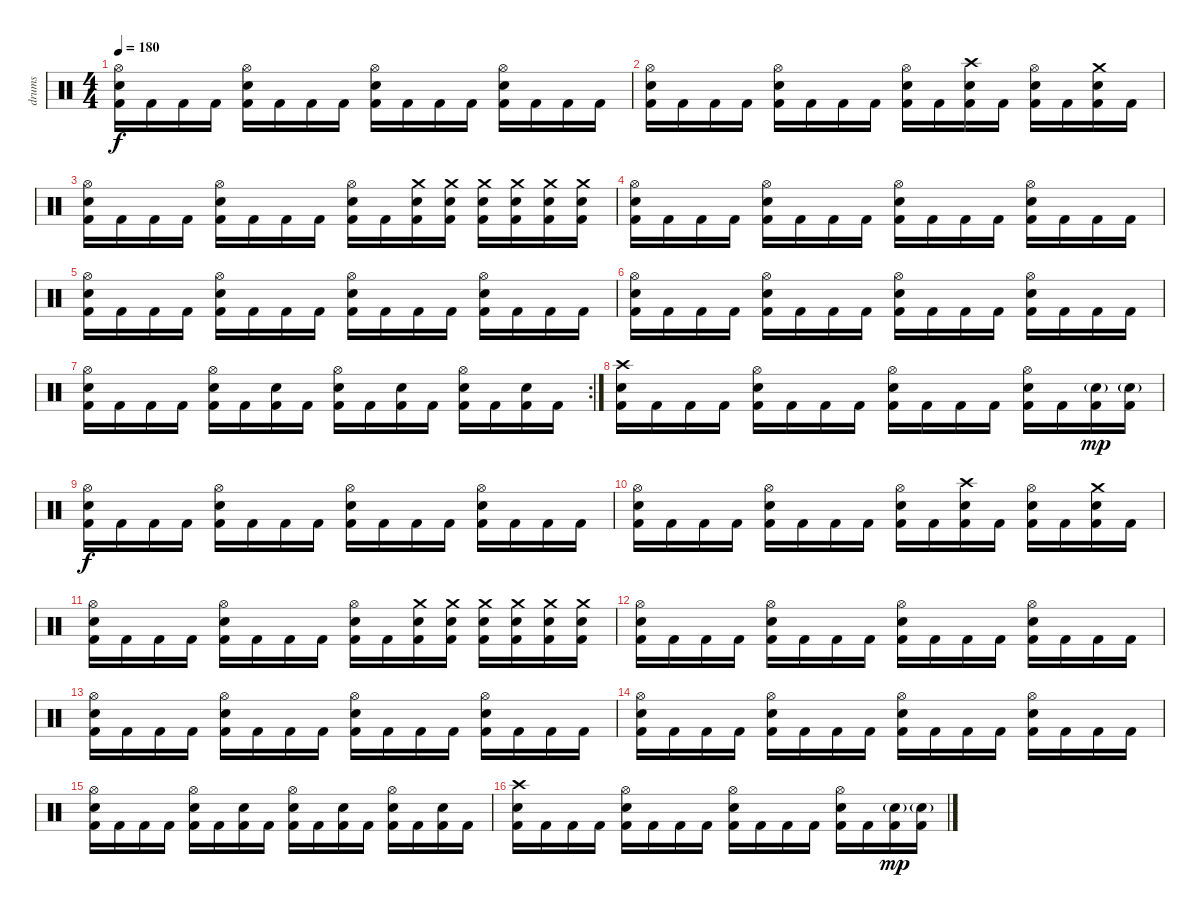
\track ("drums" "drums") {instrument percussion}
\staff {score}
\articulation defaults
\ts (4 4)
\tempo 180
\clef neutral
\ks c
("Hi-Hat (open)" "Electric Snare (hit)" "Kick (hit) 2").16{dy f} "Kick (hit) 2".16 "Kick (hit) 2".16 "Kick (hit) 2".16 ("Hi-Hat (open)" "Electric Snare (hit)" "Kick (hit) 2").16 "Kick (hit) 2".16 "Kick (hit) 2".16 "Kick (hit) 2".16 ("Hi-Hat (open)" "Electric Snare (hit)" "Kick (hit) 2").16 "Kick (hit) 2".16 "Kick (hit) 2".16 "Kick (hit) 2".16 ("Hi-Hat (open)" "Electric Snare (hit)" "Kick (hit) 2").16 "Kick (hit) 2".16 "Kick (hit) 2".16 "Kick (hit) 2".16 |
("Hi-Hat (open)" "Electric Snare (hit)" "Kick (hit) 2").16 "Kick (hit) 2".16 "Kick (hit) 2".16 "Kick (hit) 2".16 ("Hi-Hat (open)" "Electric Snare (hit)" "Kick (hit) 2").16 "Kick (hit) 2".16 "Kick (hit) 2".16 "Kick (hit) 2".16 ("Hi-Hat (open)" "Electric Snare (hit)" "Kick (hit) 2").16 "Kick (hit) 2".16 ("Crash high (hit)" "Electric Snare (hit)" "Kick (hit) 2").16 "Kick (hit) 2".16 ("Hi-Hat (open)" "Electric Snare (hit)" "Kick (hit) 2").16 "Kick (hit) 2".16 ("Crash medium (hit)" "Electric Snare (hit)" "Kick (hit) 2").16 "Kick (hit) 2".16 |
("Hi-Hat (open)" "Electric Snare (hit)" "Kick (hit) 2").16 "Kick (hit) 2".16 "Kick (hit) 2".16 "Kick (hit) 2".16 ("Hi-Hat (open)" "Electric Snare (hit)" "Kick (hit) 2").16 "Kick (hit) 2".16 "Kick (hit) 2".16 "Kick (hit) 2".16 ("Hi-Hat (open)" "Electric Snare (hit)" "Kick (hit) 2").16 "Kick (hit) 2".16 ("Crash medium (hit)" "Electric Snare (hit)" "Kick (hit) 2").16 ("Crash medium (hit)" "Electric Snare (hit)" "Kick (hit) 2").16 ("Crash medium (hit)" "Electric Snare (hit)" "Kick (hit) 2").16 ("Crash medium (hit)" "Electric Snare (hit)" "Kick (hit) 2").16 ("Crash medium (hit)" "Electric Snare (hit)" "Kick (hit) 2").16 ("Crash medium (hit)" "Electric Snare (hit)" "Kick (hit) 2").16 |
("Hi-Hat (open)" "Electric Snare (hit)" "Kick (hit) 2").16 "Kick (hit) 2".16 "Kick (hit) 2".16 "Kick (hit) 2".16 ("Hi-Hat (open)" "Electric Snare (hit)" "Kick (hit) 2").16 "Kick (hit) 2".16 "Kick (hit) 2".16 "Kick (hit) 2".16 ("Hi-Hat (open)" "Electric Snare (hit)" "Kick (hit) 2").16 "Kick (hit) 2".16 "Kick (hit) 2".16 "Kick (hit) 2".16 ("Hi-Hat (open)" "Electric Snare (hit)" "Kick (hit) 2").16 "Kick (hit) 2".16 "Kick (hit) 2".16 "Kick (hit) 2".16 |
("Hi-Hat (open)" "Electric Snare (hit)" "Kick (hit) 2").16 "Kick (hit) 2".16 "Kick (hit) 2".16 "Kick (hit) 2".16 ("Hi-Hat (open)" "Electric Snare (hit)" "Kick (hit) 2").16 "Kick (hit) 2".16 "Kick (hit) 2".16 "Kick (hit) 2".16 ("Hi-Hat (open)" "Electric Snare (hit)" "Kick (hit) 2").16 "Kick (hit) 2".16 "Kick (hit) 2".16 "Kick (hit) 2".16 ("Hi-Hat (open)" "Electric Snare (hit)" "Kick (hit) 2").16 "Kick (hit) 2".16 "Kick (hit) 2".16 "Kick (hit) 2".16 |
("Hi-Hat (open)" "Electric Snare (hit)" "Kick (hit) 2").16 "Kick (hit) 2".16 "Kick (hit) 2".16 "Kick (hit) 2".16 ("Hi-Hat (open)" "Electric Snare (hit)" "Kick (hit) 2").16 "Kick (hit) 2".16 "Kick (hit) 2".16 "Kick (hit) 2".16 ("Hi-Hat (open)" "Electric Snare (hit)" "Kick (hit) 2").16 "Kick (hit) 2".16 "Kick (hit) 2".16 "Kick (hit) 2".16 ("Hi-Hat (open)" "Electric Snare (hit)" "Kick (hit) 2").16 "Kick (hit) 2".16 "Kick (hit) 2".16 "Kick (hit) 2".16 |
\rc 2
("Hi-Hat (open)" "Electric Snare (hit)" "Kick (hit) 2").16 "Kick (hit) 2".16 "Kick (hit) 2".16 "Kick (hit) 2".16 ("Hi-Hat (open)" "Electric Snare (hit)" "Kick (hit) 2").16 "Kick (hit) 2".16 ("Electric Snare (hit)" "Kick (hit) 2").16 "Kick (hit) 2".16 ("Hi-Hat (open)" "Electric Snare (hit)" "Kick (hit) 2").16 "Kick (hit) 2".16 ("Electric Snare (hit)" "Kick (hit) 2").16 "Kick (hit) 2".16 ("Hi-Hat (open)" "Electric Snare (hit)" "Kick (hit) 2").16 "Kick (hit) 2".16 ("Electric Snare (hit)" "Kick (hit) 2").16 "Kick (hit) 2".16 |
("Crash high (hit)" "Electric Snare (hit)" "Kick (hit) 2").16 "Kick (hit) 2".16 "Kick (hit) 2".16 "Kick (hit) 2".16 ("Hi-Hat (open)" "Electric Snare (hit)" "Kick (hit) 2").16 "Kick (hit) 2".16 "Kick (hit) 2".16 "Kick (hit) 2".16 ("Hi-Hat (open)" "Electric Snare (hit)" "Kick (hit) 2").16 "Kick (hit) 2".16 "Kick (hit) 2".16 "Kick (hit) 2".16 ("Hi-Hat (open)" "Electric Snare (hit)" "Kick (hit) 2").16 "Kick (hit) 2".16 ("Electric Snare (hit)"{g} "Kick (hit) 2").16{dy mp} ("Electric Snare (hit)"{g} "Kick (hit) 2").16 |
("Hi-Hat (open)" "Electric Snare (hit)" "Kick (hit) 2").16{dy f} "Kick (hit) 2".16 "Kick (hit) 2".16 "Kick (hit) 2".16 ("Hi-Hat (open)" "Electric Snare (hit)" "Kick (hit) 2").16 "Kick (hit) 2".16 "Kick (hit) 2".16 "Kick (hit) 2".16 ("Hi-Hat (open)" "Electric Snare (hit)" "Kick (hit) 2").16 "Kick (hit) 2".16 "Kick (hit) 2".16 "Kick (hit) 2".16 ("Hi-Hat (open)" "Electric Snare (hit)" "Kick (hit) 2").16 "Kick (hit) 2".16 "Kick (hit) 2".16 "Kick (hit) 2".16 |
("Hi-Hat (open)" "Electric Snare (hit)" "Kick (hit) 2").16 "Kick (hit) 2".16 "Kick (hit) 2".16 "Kick (hit) 2".16 ("Hi-Hat (open)" "Electric Snare (hit)" "Kick (hit) 2").16 "Kick (hit) 2".16 "Kick (hit) 2".16 "Kick (hit) 2".16 ("Hi-Hat (open)" "Electric Snare (hit)" "Kick (hit) 2").16 "Kick (hit) 2".16 ("Crash high (hit)" "Electric Snare (hit)" "Kick (hit) 2").16 "Kick (hit) 2".16 ("Hi-Hat (open)" "Electric Snare (hit)" "Kick (hit) 2").16 "Kick (hit) 2".16 ("Crash medium (hit)" "Electric Snare (hit)" "Kick (hit) 2").16 "Kick (hit) 2".16 |
("Hi-Hat (open)" "Electric Snare (hit)" "Kick (hit) 2").16 "Kick (hit) 2".16 "Kick (hit) 2".16 "Kick (hit) 2".16 ("Hi-Hat (open)" "Electric Snare (hit)" "Kick (hit) 2").16 "Kick (hit) 2".16 "Kick (hit) 2".16 "Kick (hit) 2".16 ("Hi-Hat (open)" "Electric Snare (hit)" "Kick (hit) 2").16 "Kick (hit) 2".16 ("Crash medium (hit)" "Electric Snare (hit)" "Kick (hit) 2").16 ("Crash medium (hit)" "Electric Snare (hit)" "Kick (hit) 2").16 ("Crash medium (hit)" "Electric Snare (hit)" "Kick (hit) 2").16 ("Crash medium (hit)" "Electric Snare (hit)" "Kick (hit) 2").16 ("Crash medium (hit)" "Electric Snare (hit)" "Kick (hit) 2").16 ("Crash medium (hit)" "Electric Snare (hit)" "Kick (hit) 2").16 |
("Hi-Hat (open)" "Electric Snare (hit)" "Kick (hit) 2").16 "Kick (hit) 2".16 "Kick (hit) 2".16 "Kick (hit) 2".16 ("Hi-Hat (open)" "Electric Snare (hit)" "Kick (hit) 2").16 "Kick (hit) 2".16 "Kick (hit) 2".16 "Kick (hit) 2".16 ("Hi-Hat (open)" "Electric Snare (hit)" "Kick (hit) 2").16 "Kick (hit) 2".16 "Kick (hit) 2".16 "Kick (hit) 2".16 ("Hi-Hat (open)" "Electric Snare (hit)" "Kick (hit) 2").16 "Kick (hit) 2".16 "Kick (hit) 2".16 "Kick (hit) 2".16 |
("Hi-Hat (open)" "Electric Snare (hit)" "Kick (hit) 2").16 "Kick (hit) 2".16 "Kick (hit) 2".16 "Kick (hit) 2".16 ("Hi-Hat (open)" "Electric Snare (hit)" "Kick (hit) 2").16 "Kick (hit) 2".16 "Kick (hit) 2".16 "Kick (hit) 2".16 ("Hi-Hat (open)" "Electric Snare (hit)" "Kick (hit) 2").16 "Kick (hit) 2".16 "Kick (hit) 2".16 "Kick (hit) 2".16 ("Hi-Hat (open)" "Electric Snare (hit)" "Kick (hit) 2").16 "Kick (hit) 2".16 "Kick (hit) 2".16 "Kick (hit) 2".16 |
("Hi-Hat (open)" "Electric Snare (hit)" "Kick (hit) 2").16 "Kick (hit) 2".16 "Kick (hit) 2".16 "Kick (hit) 2".16 ("Hi-Hat (open)" "Electric Snare (hit)" "Kick (hit) 2").16 "Kick (hit) 2".16 "Kick (hit) 2".16 "Kick (hit) 2".16 ("Hi-Hat (open)" "Electric Snare (hit)" "Kick (hit) 2").16 "Kick (hit) 2".16 "Kick (hit) 2".16 "Kick (hit) 2".16 ("Hi-Hat (open)" "Electric Snare (hit)" "Kick (hit) 2").16 "Kick (hit) 2".16 "Kick (hit) 2".16 "Kick (hit) 2".16 |
("Hi-Hat (open)" "Electric Snare (hit)" "Kick (hit) 2").16 "Kick (hit) 2".16 "Kick (hit) 2".16 "Kick (hit) 2".16 ("Hi-Hat (open)" "Electric Snare (hit)" "Kick (hit) 2").16 "Kick (hit) 2".16 ("Electric Snare (hit)" "Kick (hit) 2").16 "Kick (hit) 2".16 ("Hi-Hat (open)" "Electric Snare (hit)" "Kick (hit) 2").16 "Kick (hit) 2".16 ("Electric Snare (hit)" "Kick (hit) 2").16 "Kick (hit) 2".16 ("Hi-Hat (open)" "Electric Snare (hit)" "Kick (hit) 2").16 "Kick (hit) 2".16 ("Electric Snare (hit)" "Kick (hit) 2").16 "Kick (hit) 2".16 |
("Crash high (hit)" "Electric Snare (hit)" "Kick (hit) 2").16 "Kick (hit) 2".16 "Kick (hit) 2".16 "Kick (hit) 2".16 ("Hi-Hat (open)" "Electric Snare (hit)" "Kick (hit) 2").16 "Kick (hit) 2".16 "Kick (hit) 2".16 "Kick (hit) 2".16 ("Hi-Hat (open)" "Electric Snare (hit)" "Kick (hit) 2").16 "Kick (hit) 2".16 "Kick (hit) 2".16 "Kick (hit) 2".16 ("Hi-Hat (open)" "Electric Snare (hit)" "Kick (hit) 2").16 "Kick (hit) 2".16 ("Electric Snare (hit)"{g} "Kick (hit) 2").16{dy mp} ("Electric Snare (hit)"{g} "Kick (hit) 2").16
